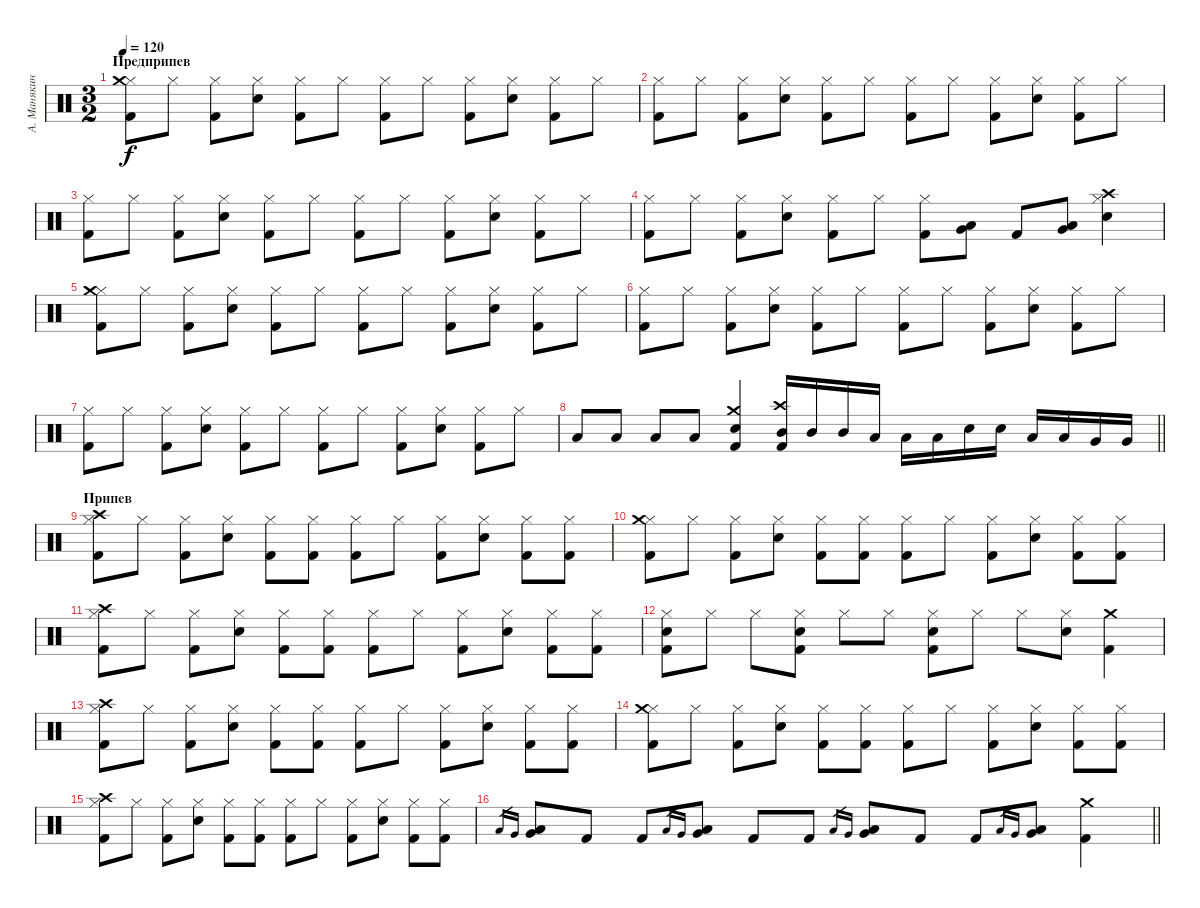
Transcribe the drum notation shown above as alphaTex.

\track ("А. Манякин" "А. Манякин") {instrument percussion}
\staff {score}
\articulation defaults
\ts (3 2)
\section ("" "Предприпев")
\tempo 120
\clef neutral
\ks c
("Kick (hit) 2" "Hi-Hat (closed)" "Crash medium (hit)").8{dy f} "Hi-Hat (closed)".8 ("Kick (hit) 2" "Hi-Hat (closed)").8 ("Electric Snare (hit)" "Hi-Hat (closed)").8 ("Kick (hit) 2" "Hi-Hat (closed)").8 "Hi-Hat (closed)".8 ("Kick (hit) 2" "Hi-Hat (closed)").8 "Hi-Hat (closed)".8 ("Kick (hit) 2" "Hi-Hat (closed)").8 ("Electric Snare (hit)" "Hi-Hat (closed)").8 ("Kick (hit) 2" "Hi-Hat (closed)").8 "Hi-Hat (closed)".8 |
("Kick (hit) 2" "Hi-Hat (closed)").8 "Hi-Hat (closed)".8 ("Kick (hit) 2" "Hi-Hat (closed)").8 ("Electric Snare (hit)" "Hi-Hat (closed)").8 ("Kick (hit) 2" "Hi-Hat (closed)").8 "Hi-Hat (closed)".8 ("Kick (hit) 2" "Hi-Hat (closed)").8 "Hi-Hat (closed)".8 ("Kick (hit) 2" "Hi-Hat (closed)").8 ("Electric Snare (hit)" "Hi-Hat (closed)").8 ("Kick (hit) 2" "Hi-Hat (closed)").8 "Hi-Hat (closed)".8 |
("Kick (hit) 2" "Hi-Hat (closed)").8 "Hi-Hat (closed)".8 ("Kick (hit) 2" "Hi-Hat (closed)").8 ("Electric Snare (hit)" "Hi-Hat (closed)").8 ("Kick (hit) 2" "Hi-Hat (closed)").8 "Hi-Hat (closed)".8 ("Kick (hit) 2" "Hi-Hat (closed)").8 "Hi-Hat (closed)".8 ("Kick (hit) 2" "Hi-Hat (closed)").8 ("Electric Snare (hit)" "Hi-Hat (closed)").8 ("Kick (hit) 2" "Hi-Hat (closed)").8 "Hi-Hat (closed)".8 |
("Kick (hit) 2" "Hi-Hat (closed)").8 "Hi-Hat (closed)".8 ("Kick (hit) 2" "Hi-Hat (closed)").8 ("Electric Snare (hit)" "Hi-Hat (closed)").8 ("Kick (hit) 2" "Hi-Hat (closed)").8 "Hi-Hat (closed)".8 ("Kick (hit) 2" "Hi-Hat (closed)").8 ("Low Tom (hit)" "Very Low Tom (hit)").8 "Kick (hit) 2".8 ("Low Tom (hit)" "Very Low Tom (hit)").8 ("Electric Snare (hit)" "Hi-Hat (closed)" "Crash high (hit)").4 |
("Kick (hit) 2" "Hi-Hat (closed)" "Crash medium (hit)").8 "Hi-Hat (closed)".8 ("Kick (hit) 2" "Hi-Hat (closed)").8 ("Electric Snare (hit)" "Hi-Hat (closed)").8 ("Kick (hit) 2" "Hi-Hat (closed)").8 "Hi-Hat (closed)".8 ("Kick (hit) 2" "Hi-Hat (closed)").8 "Hi-Hat (closed)".8 ("Kick (hit) 2" "Hi-Hat (closed)").8 ("Electric Snare (hit)" "Hi-Hat (closed)").8 ("Kick (hit) 2" "Hi-Hat (closed)").8 "Hi-Hat (closed)".8 |
("Kick (hit) 2" "Hi-Hat (closed)").8 "Hi-Hat (closed)".8 ("Kick (hit) 2" "Hi-Hat (closed)").8 ("Electric Snare (hit)" "Hi-Hat (closed)").8 ("Kick (hit) 2" "Hi-Hat (closed)").8 "Hi-Hat (closed)".8 ("Kick (hit) 2" "Hi-Hat (closed)").8 "Hi-Hat (closed)".8 ("Kick (hit) 2" "Hi-Hat (closed)").8 ("Electric Snare (hit)" "Hi-Hat (closed)").8 ("Kick (hit) 2" "Hi-Hat (closed)").8 "Hi-Hat (closed)".8 |
("Kick (hit) 2" "Hi-Hat (closed)").8 "Hi-Hat (closed)".8 ("Kick (hit) 2" "Hi-Hat (closed)").8 ("Electric Snare (hit)" "Hi-Hat (closed)").8 ("Kick (hit) 2" "Hi-Hat (closed)").8 "Hi-Hat (closed)".8 ("Kick (hit) 2" "Hi-Hat (closed)").8 "Hi-Hat (closed)".8 ("Kick (hit) 2" "Hi-Hat (closed)").8 ("Electric Snare (hit)" "Hi-Hat (closed)").8 ("Kick (hit) 2" "Hi-Hat (closed)").8 "Hi-Hat (closed)".8 |
\barLineRight lightlight "Low Tom (hit)".8 "Low Tom (hit)".8 "Low Tom (hit)".8 "Low Tom (hit)".8
("Kick (hit) 2" "Electric Snare (hit)" "Crash medium (hit)").4 ("Kick (hit) 2" "Mid Tom (hit)" "Crash high (hit)").16 "Mid Tom (hit)".16 "Mid Tom (hit)".16 "Low Tom (hit)".16 "Low Tom (hit)".16 "Low Tom (hit)".16 "Electric Snare (hit)".16 "Electric Snare (hit)".16 "Low Tom (hit)".16 "Low Tom (hit)".16 "Very Low Tom (hit)".16 "Very Low Tom (hit)".16 |
\section ("" "Припев")
("Kick (hit) 2" "Hi-Hat (closed)" "Crash high (hit)").8 "Hi-Hat (closed)".8 ("Kick (hit) 2" "Hi-Hat (closed)").8 ("Electric Snare (hit)" "Hi-Hat (closed)").8 ("Kick (hit) 2" "Hi-Hat (closed)").8 ("Kick (hit) 2" "Hi-Hat (closed)").8 ("Kick (hit) 2" "Hi-Hat (closed)").8 "Hi-Hat (closed)".8 ("Kick (hit) 2" "Hi-Hat (closed)").8 ("Electric Snare (hit)" "Hi-Hat (closed)").8 ("Kick (hit) 2" "Hi-Hat (closed)").8 ("Kick (hit) 2" "Hi-Hat (closed)").8 |
("Kick (hit) 2" "Hi-Hat (closed)" "Crash medium (hit)").8 "Hi-Hat (closed)".8 ("Kick (hit) 2" "Hi-Hat (closed)").8 ("Electric Snare (hit)" "Hi-Hat (closed)").8 ("Kick (hit) 2" "Hi-Hat (closed)").8 ("Kick (hit) 2" "Hi-Hat (closed)").8 ("Kick (hit) 2" "Hi-Hat (closed)").8 "Hi-Hat (closed)".8 ("Kick (hit) 2" "Hi-Hat (closed)").8 ("Electric Snare (hit)" "Hi-Hat (closed)").8 ("Kick (hit) 2" "Hi-Hat (closed)").8 ("Kick (hit) 2" "Hi-Hat (closed)").8 |
("Kick (hit) 2" "Hi-Hat (closed)" "Crash high (hit)").8 "Hi-Hat (closed)".8 ("Kick (hit) 2" "Hi-Hat (closed)").8 ("Electric Snare (hit)" "Hi-Hat (closed)").8 ("Kick (hit) 2" "Hi-Hat (closed)").8 ("Kick (hit) 2" "Hi-Hat (closed)").8 ("Kick (hit) 2" "Hi-Hat (closed)").8 "Hi-Hat (closed)".8 ("Kick (hit) 2" "Hi-Hat (closed)").8 ("Electric Snare (hit)" "Hi-Hat (closed)").8 ("Kick (hit) 2" "Hi-Hat (closed)").8 ("Kick (hit) 2" "Hi-Hat (closed)").8 |
("Kick (hit) 2" "Electric Snare (hit)" "Hi-Hat (closed)").8 "Hi-Hat (closed)".8 "Hi-Hat (closed)".8 ("Kick (hit) 2" "Electric Snare (hit)" "Hi-Hat (closed)").8 "Hi-Hat (closed)".8 "Hi-Hat (closed)".8 ("Kick (hit) 2" "Electric Snare (hit)" "Hi-Hat (closed)").8 "Hi-Hat (closed)".8 "Hi-Hat (closed)".8 ("Electric Snare (hit)" "Hi-Hat (closed)").8 ("Kick (hit) 2" "Crash medium (hit)").4 |
("Kick (hit) 2" "Hi-Hat (closed)" "Crash high (hit)").8 "Hi-Hat (closed)".8 ("Kick (hit) 2" "Hi-Hat (closed)").8 ("Electric Snare (hit)" "Hi-Hat (closed)").8 ("Kick (hit) 2" "Hi-Hat (closed)").8 ("Kick (hit) 2" "Hi-Hat (closed)").8 ("Kick (hit) 2" "Hi-Hat (closed)").8 "Hi-Hat (closed)".8 ("Kick (hit) 2" "Hi-Hat (closed)").8 ("Electric Snare (hit)" "Hi-Hat (closed)").8 ("Kick (hit) 2" "Hi-Hat (closed)").8 ("Kick (hit) 2" "Hi-Hat (closed)").8 |
("Kick (hit) 2" "Hi-Hat (closed)" "Crash medium (hit)").8 "Hi-Hat (closed)".8 ("Kick (hit) 2" "Hi-Hat (closed)").8 ("Electric Snare (hit)" "Hi-Hat (closed)").8 ("Kick (hit) 2" "Hi-Hat (closed)").8 ("Kick (hit) 2" "Hi-Hat (closed)").8 ("Kick (hit) 2" "Hi-Hat (closed)").8 "Hi-Hat (closed)".8 ("Kick (hit) 2" "Hi-Hat (closed)").8 ("Electric Snare (hit)" "Hi-Hat (closed)").8 ("Kick (hit) 2" "Hi-Hat (closed)").8 ("Kick (hit) 2" "Hi-Hat (closed)").8 |
("Kick (hit) 2" "Hi-Hat (closed)" "Crash high (hit)").8 "Hi-Hat (closed)".8 ("Kick (hit) 2" "Hi-Hat (closed)").8 ("Electric Snare (hit)" "Hi-Hat (closed)").8 ("Kick (hit) 2" "Hi-Hat (closed)").8 ("Kick (hit) 2" "Hi-Hat (closed)").8 ("Kick (hit) 2" "Hi-Hat (closed)").8 "Hi-Hat (closed)".8 ("Kick (hit) 2" "Hi-Hat (closed)").8 ("Electric Snare (hit)" "Hi-Hat (closed)").8 ("Kick (hit) 2" "Hi-Hat (closed)").8 ("Kick (hit) 2" "Hi-Hat (closed)").8 |
\barLineRight lightlight "Low Tom (hit)".16{gr} "Very Low Tom (hit)".16{gr}
("Low Tom (hit)" "Very Low Tom (hit)").8 "Kick (hit) 2".8 "Kick (hit) 2".8 "Low Tom (hit)".16{gr} "Very Low Tom (hit)".16{gr} ("Low Tom (hit)" "Very Low Tom (hit)").8 "Kick (hit) 2".8 "Kick (hit) 2".8 "Low Tom (hit)".16{gr} "Very Low Tom (hit)".16{gr} ("Low Tom (hit)" "Very Low Tom (hit)").8 "Kick (hit) 2".8 "Kick (hit) 2".8 "Low Tom (hit)".16{gr} "Very Low Tom (hit)".16{gr} ("Low Tom (hit)" "Very Low Tom (hit)").8 ("Kick (hit) 2" "Crash medium (hit)").4
